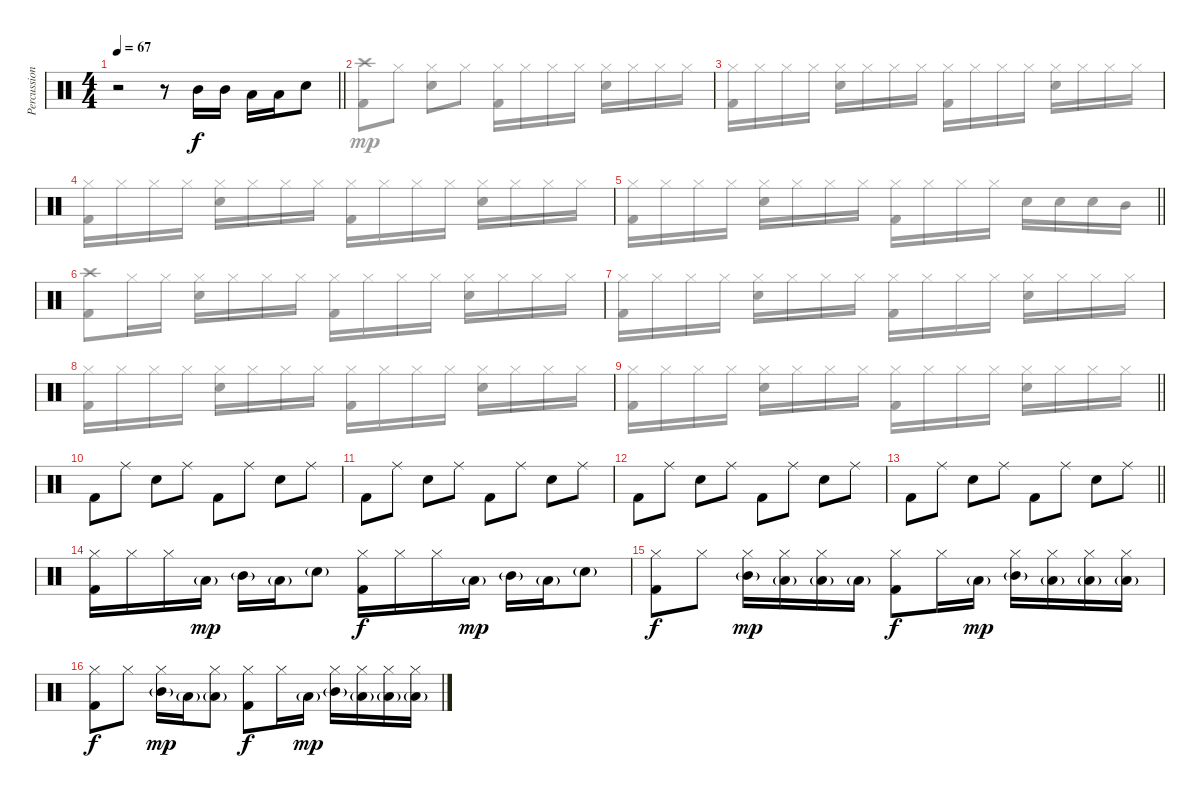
\track ("Percussion" "Percussion") {instrument percussion}
\staff {score}
\articulation defaults
\voice
\ts (4 4)
\tempo 67
\clef neutral
\barLineRight lightlight
\ks c
r.2{dy f} r.8 "Mid Tom (hit)".16 "Mid Tom (hit)".16 "Low Floor Tom (hit)".16 "Low Floor Tom (hit)".16 "Snare (hit) 2".8 |
|
|
|
\barLineRight lightlight
|
|
|
|
\barLineRight lightlight
|
"Kick (hit) 2".8 "Ride (middle)".8 "Snare (hit) 2".8 "Ride (middle)".8 "Kick (hit) 2".8 "Ride (middle)".8 "Snare (hit) 2".8 "Ride (middle)".8 |
"Kick (hit) 2".8 "Ride (middle)".8 "Snare (hit) 2".8 "Ride (middle)".8 "Kick (hit) 2".8 "Ride (middle)".8 "Snare (hit) 2".8 "Ride (middle)".8 |
"Kick (hit) 2".8 "Ride (middle)".8 "Snare (hit) 2".8 "Ride (middle)".8 "Kick (hit) 2".8 "Ride (middle)".8 "Snare (hit) 2".8 "Ride (middle)".8 |
\barLineRight lightlight "Kick (hit) 2".8 "Ride (middle)".8 "Snare (hit) 2".8 "Ride (middle)".8 "Kick (hit) 2".8 "Ride (middle)".8 "Snare (hit) 2".8 "Ride (middle)".8
|
("Hi-Hat (closed)" "Kick (hit) 2").16 "Hi-Hat (closed)".16 "Hi-Hat (closed)".16 "Low Tom (hit)"{g}.16{dy mp} "Mid Tom (hit)"{g}.16 "Low Tom (hit)"{g}.16 "Snare (hit) 2"{g}.8 ("Hi-Hat (closed)" "Kick (hit) 2").16{dy f} "Hi-Hat (closed)".16 "Hi-Hat (closed)".16 "Low Tom (hit)"{g}.16{dy mp} "Mid Tom (hit)"{g}.16 "Low Tom (hit)"{g}.16 "Snare (hit) 2"{g}.8 |
("Hi-Hat (closed)" "Kick (hit) 2").8{dy f} "Hi-Hat (closed)".8 ("Hi-Hat (closed)" "Mid Tom (hit)"{g}).16{dy mp} ("Hi-Hat (closed)" "Low Tom (hit)"{g}).16 ("Hi-Hat (closed)" "Low Floor Tom (hit)"{g}).16 "Low Floor Tom (hit)"{g}.16 ("Hi-Hat (closed)" "Kick (hit) 2").8{dy f} "Hi-Hat (closed)".16 "Low Tom (hit)"{g}.16{dy mp} ("Hi-Hat (closed)" "Mid Tom (hit)"{g}).16 ("Hi-Hat (closed)" "Low Tom (hit)"{g}).16 ("Hi-Hat (closed)" "Low Floor Tom (hit)"{g}).16 ("Hi-Hat (closed)" "Low Floor Tom (hit)"{g}).16 |
("Hi-Hat (closed)" "Kick (hit) 2").8{dy f} "Hi-Hat (closed)".8 ("Hi-Hat (closed)" "Mid Tom (hit)"{g}).16{dy mp} "Low Tom (hit)"{g}.16 ("Hi-Hat (closed)" "Low Floor Tom (hit)"{g}).8 ("Hi-Hat (closed)" "Kick (hit) 2").8{dy f} "Hi-Hat (closed)".16 "Low Tom (hit)"{g}.16{dy mp} ("Hi-Hat (closed)" "Mid Tom (hit)"{g}).16 ("Hi-Hat (closed)" "Low Tom (hit)"{g}).16 ("Hi-Hat (closed)" "Low Floor Tom (hit)"{g}).16 ("Hi-Hat (closed)" "Low Floor Tom (hit)"{g}).16
\voice
\clef neutral
\ottava regular
\simile none
\barLineRight lightlight
\ks c
|
("Crash high (hit)" "Kick (hit) 2").8 "Hi-Hat (closed)".8 ("Hi-Hat (closed)" "Snare (hit) 2").8 "Hi-Hat (closed)".8 ("Hi-Hat (closed)" "Kick (hit) 2").16 "Hi-Hat (closed)".16 "Hi-Hat (closed)".16 "Hi-Hat (closed)".16 ("Hi-Hat (closed)" "Snare (hit) 2").16 "Hi-Hat (closed)".16 "Hi-Hat (closed)".16 "Hi-Hat (closed)".16 |
("Hi-Hat (closed)" "Kick (hit) 2").16 "Hi-Hat (closed)".16 "Hi-Hat (closed)".16 "Hi-Hat (closed)".16 ("Hi-Hat (closed)" "Snare (hit) 2").16 "Hi-Hat (closed)".16 "Hi-Hat (closed)".16 "Hi-Hat (closed)".16 ("Hi-Hat (closed)" "Kick (hit) 2").16 "Hi-Hat (closed)".16 "Hi-Hat (closed)".16 "Hi-Hat (closed)".16 ("Hi-Hat (closed)" "Snare (hit) 2").16 "Hi-Hat (closed)".16 "Hi-Hat (closed)".16 "Hi-Hat (closed)".16 |
("Hi-Hat (closed)" "Kick (hit) 2").16 "Hi-Hat (closed)".16 "Hi-Hat (closed)".16 "Hi-Hat (closed)".16 ("Hi-Hat (closed)" "Snare (hit) 2").16 "Hi-Hat (closed)".16 "Hi-Hat (closed)".16 "Hi-Hat (closed)".16 ("Hi-Hat (closed)" "Kick (hit) 2").16 "Hi-Hat (closed)".16 "Hi-Hat (closed)".16 "Hi-Hat (closed)".16 ("Hi-Hat (closed)" "Snare (hit) 2").16 "Hi-Hat (closed)".16 "Hi-Hat (closed)".16 "Hi-Hat (closed)".16 |
\barLineRight lightlight
("Hi-Hat (closed)" "Kick (hit) 2").16 "Hi-Hat (closed)".16 "Hi-Hat (closed)".16 "Hi-Hat (closed)".16 ("Hi-Hat (closed)" "Snare (hit) 2").16 "Hi-Hat (closed)".16 "Hi-Hat (closed)".16 "Hi-Hat (closed)".16 ("Hi-Hat (closed)" "Kick (hit) 2").16 "Hi-Hat (closed)".16 "Hi-Hat (closed)".16 "Hi-Hat (closed)".16 "Snare (hit) 2".16 "Snare (hit) 2".16 "Snare (hit) 2".16 "Mid Tom (hit)".16 |
("Crash high (hit)" "Kick (hit) 2").8 "Hi-Hat (closed)".16 "Hi-Hat (closed)".16 ("Hi-Hat (closed)" "Snare (hit) 2").16 "Hi-Hat (closed)".16 "Hi-Hat (closed)".16 "Hi-Hat (closed)".16 ("Hi-Hat (closed)" "Kick (hit) 2").16 "Hi-Hat (closed)".16 "Hi-Hat (closed)".16 "Hi-Hat (closed)".16 ("Hi-Hat (closed)" "Snare (hit) 2").16 "Hi-Hat (closed)".16 "Hi-Hat (closed)".16 "Hi-Hat (closed)".16 |
("Hi-Hat (closed)" "Kick (hit) 2").16 "Hi-Hat (closed)".16 "Hi-Hat (closed)".16 "Hi-Hat (closed)".16 ("Hi-Hat (closed)" "Snare (hit) 2").16 "Hi-Hat (closed)".16 "Hi-Hat (closed)".16 "Hi-Hat (closed)".16 ("Hi-Hat (closed)" "Kick (hit) 2").16 "Hi-Hat (closed)".16 "Hi-Hat (closed)".16 "Hi-Hat (closed)".16 ("Hi-Hat (closed)" "Snare (hit) 2").16 "Hi-Hat (closed)".16 "Hi-Hat (closed)".16 "Hi-Hat (closed)".16 |
("Hi-Hat (closed)" "Kick (hit) 2").16 "Hi-Hat (closed)".16 "Hi-Hat (closed)".16 "Hi-Hat (closed)".16 ("Hi-Hat (closed)" "Snare (hit) 2").16 "Hi-Hat (closed)".16 "Hi-Hat (closed)".16 "Hi-Hat (closed)".16 ("Hi-Hat (closed)" "Kick (hit) 2").16 "Hi-Hat (closed)".16 "Hi-Hat (closed)".16 "Hi-Hat (closed)".16 ("Hi-Hat (closed)" "Snare (hit) 2").16 "Hi-Hat (closed)".16 "Hi-Hat (closed)".16 "Hi-Hat (closed)".16 |
\barLineRight lightlight
("Hi-Hat (closed)" "Kick (hit) 2").16 "Hi-Hat (closed)".16 "Hi-Hat (closed)".16 "Hi-Hat (closed)".16 ("Hi-Hat (closed)" "Snare (hit) 2").16 "Hi-Hat (closed)".16 "Hi-Hat (closed)".16 "Hi-Hat (closed)".16 ("Hi-Hat (closed)" "Kick (hit) 2").16 "Hi-Hat (closed)".16 "Hi-Hat (closed)".16 "Hi-Hat (closed)".16 ("Hi-Hat (closed)" "Snare (hit) 2").16 "Hi-Hat (closed)".16 "Hi-Hat (closed)".16 "Hi-Hat (closed)".16 |
|
|
|
\barLineRight lightlight
|
|
|
